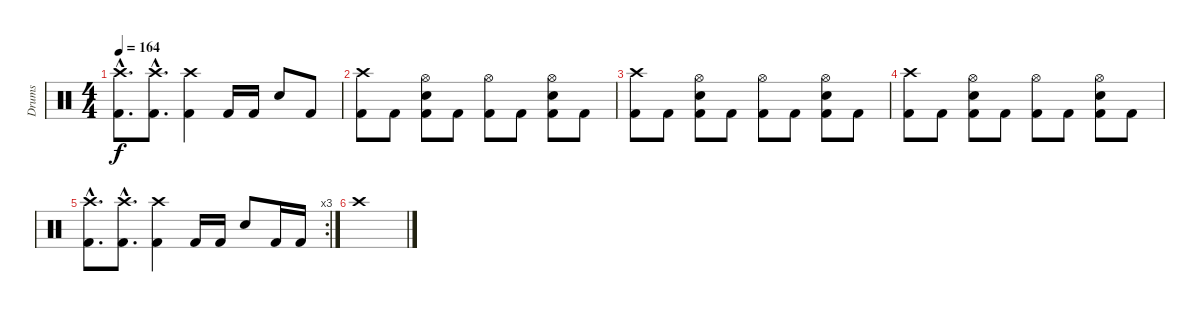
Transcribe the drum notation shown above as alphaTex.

\track ("Drums" "Drums") {instrument percussion}
\staff {score}
\articulation defaults
\ts (4 4)
\tempo 164
\clef neutral
\ks c
("Crash high (hit)"{hac} "Kick (hit) 2"{hac}).8{d dy f} ("Crash high (hit)"{hac} "Kick (hit) 2"{hac}).8{d} ("Crash high (hit)" "Kick (hit) 2").4 "Kick (hit) 2".16 "Kick (hit) 2".16 "Snare (hit) 2".8 "Kick (hit) 2".8 |
("Crash high (hit)" "Kick (hit) 2").8 "Kick (hit) 2".8 ("Hi-Hat (open)" "Snare (hit) 2" "Kick (hit) 2").8 "Kick (hit) 2".8 ("Hi-Hat (open)" "Kick (hit) 2").8 "Kick (hit) 2".8 ("Hi-Hat (open)" "Snare (hit) 2" "Kick (hit) 2").8 "Kick (hit) 2".8 |
("Crash high (hit)" "Kick (hit) 2").8 "Kick (hit) 2".8 ("Hi-Hat (open)" "Snare (hit) 2" "Kick (hit) 2").8 "Kick (hit) 2".8 ("Hi-Hat (open)" "Kick (hit) 2").8 "Kick (hit) 2".8 ("Hi-Hat (open)" "Snare (hit) 2" "Kick (hit) 2").8 "Kick (hit) 2".8 |
("Crash high (hit)" "Kick (hit) 2").8 "Kick (hit) 2".8 ("Hi-Hat (open)" "Snare (hit) 2" "Kick (hit) 2").8 "Kick (hit) 2".8 ("Hi-Hat (open)" "Kick (hit) 2").8 "Kick (hit) 2".8 ("Hi-Hat (open)" "Snare (hit) 2" "Kick (hit) 2").8 "Kick (hit) 2".8 |
\rc 3
("Crash high (hit)"{hac} "Kick (hit) 2"{hac}).8{d} ("Crash high (hit)"{hac} "Kick (hit) 2"{hac}).8{d} ("Crash high (hit)" "Kick (hit) 2").4 "Kick (hit) 2".16 "Kick (hit) 2".16 "Snare (hit) 2".8 "Kick (hit) 2".16 "Kick (hit) 2".16 |
"Crash high (hit)".1
